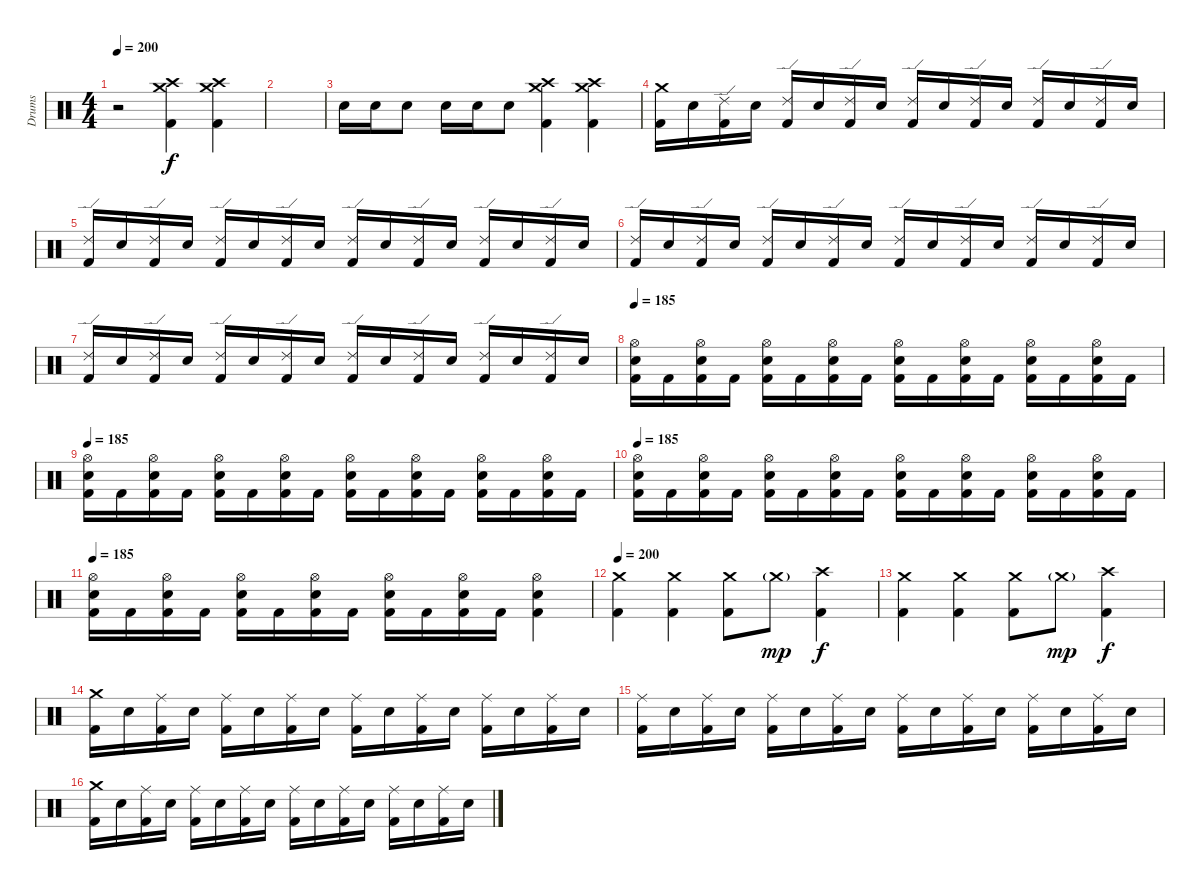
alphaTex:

\track ("Drums" "Drums") {instrument percussion}
\staff {score}
\articulation defaults
\ts (4 4)
\tempo 200
\clef neutral
\ks c
r.2{dy f} ("Crash high (hit)" "Crash medium (hit)" "Kick (hit) 2").4 ("Crash high (hit)" "Crash medium (hit)" "Kick (hit) 2").4 |
|
"Electric Snare (hit)".16 "Electric Snare (hit)".16 "Electric Snare (hit)".8 "Electric Snare (hit)".16 "Electric Snare (hit)".16 "Electric Snare (hit)".8 ("Crash high (hit)" "Crash medium (hit)" "Kick (hit) 2").4 ("Crash high (hit)" "Crash medium (hit)" "Kick (hit) 2").4 |
("Crash medium (hit)" "Kick (hit) 2").16 "Electric Snare (hit)".16 ("Ride (edge) 2" "Kick (hit) 2").16 "Electric Snare (hit)".16 ("Ride (edge) 2" "Kick (hit) 2").16 "Electric Snare (hit)".16 ("Ride (edge) 2" "Kick (hit) 2").16 "Electric Snare (hit)".16 ("Ride (edge) 2" "Kick (hit) 2").16 "Electric Snare (hit)".16 ("Ride (edge) 2" "Kick (hit) 2").16 "Electric Snare (hit)".16 ("Ride (edge) 2" "Kick (hit) 2").16 "Electric Snare (hit)".16 ("Ride (edge) 2" "Kick (hit) 2").16 "Electric Snare (hit)".16 |
("Ride (edge) 2" "Kick (hit) 2").16 "Electric Snare (hit)".16 ("Ride (edge) 2" "Kick (hit) 2").16 "Electric Snare (hit)".16 ("Ride (edge) 2" "Kick (hit) 2").16 "Electric Snare (hit)".16 ("Ride (edge) 2" "Kick (hit) 2").16 "Electric Snare (hit)".16 ("Ride (edge) 2" "Kick (hit) 2").16 "Electric Snare (hit)".16 ("Ride (edge) 2" "Kick (hit) 2").16 "Electric Snare (hit)".16 ("Ride (edge) 2" "Kick (hit) 2").16 "Electric Snare (hit)".16 ("Ride (edge) 2" "Kick (hit) 2").16 "Electric Snare (hit)".16 |
("Ride (edge) 2" "Kick (hit) 2").16 "Electric Snare (hit)".16 ("Ride (edge) 2" "Kick (hit) 2").16 "Electric Snare (hit)".16 ("Ride (edge) 2" "Kick (hit) 2").16 "Electric Snare (hit)".16 ("Ride (edge) 2" "Kick (hit) 2").16 "Electric Snare (hit)".16 ("Ride (edge) 2" "Kick (hit) 2").16 "Electric Snare (hit)".16 ("Ride (edge) 2" "Kick (hit) 2").16 "Electric Snare (hit)".16 ("Ride (edge) 2" "Kick (hit) 2").16 "Electric Snare (hit)".16 ("Ride (edge) 2" "Kick (hit) 2").16 "Electric Snare (hit)".16 |
("Ride (edge) 2" "Kick (hit) 2").16 "Electric Snare (hit)".16 ("Ride (edge) 2" "Kick (hit) 2").16 "Electric Snare (hit)".16 ("Ride (edge) 2" "Kick (hit) 2").16 "Electric Snare (hit)".16 ("Ride (edge) 2" "Kick (hit) 2").16 "Electric Snare (hit)".16 ("Ride (edge) 2" "Kick (hit) 2").16 "Electric Snare (hit)".16 ("Ride (edge) 2" "Kick (hit) 2").16 "Electric Snare (hit)".16 ("Ride (edge) 2" "Kick (hit) 2").16 "Electric Snare (hit)".16 ("Ride (edge) 2" "Kick (hit) 2").16 "Electric Snare (hit)".16 |
\section ("" "")
\tempo 185
("Hi-Hat (open)" "Electric Snare (hit)" "Kick (hit) 2").16 "Kick (hit) 2".16 ("Hi-Hat (open)" "Electric Snare (hit)" "Kick (hit) 2").16 "Kick (hit) 2".16 ("Hi-Hat (open)" "Electric Snare (hit)" "Kick (hit) 2").16 "Kick (hit) 2".16 ("Hi-Hat (open)" "Electric Snare (hit)" "Kick (hit) 2").16 "Kick (hit) 2".16 ("Hi-Hat (open)" "Electric Snare (hit)" "Kick (hit) 2").16 "Kick (hit) 2".16 ("Hi-Hat (open)" "Electric Snare (hit)" "Kick (hit) 2").16 "Kick (hit) 2".16 ("Hi-Hat (open)" "Electric Snare (hit)" "Kick (hit) 2").16 "Kick (hit) 2".16 ("Hi-Hat (open)" "Electric Snare (hit)" "Kick (hit) 2").16 "Kick (hit) 2".16 |
\tempo 185
("Hi-Hat (open)" "Electric Snare (hit)" "Kick (hit) 2").16 "Kick (hit) 2".16 ("Hi-Hat (open)" "Electric Snare (hit)" "Kick (hit) 2").16 "Kick (hit) 2".16 ("Hi-Hat (open)" "Electric Snare (hit)" "Kick (hit) 2").16 "Kick (hit) 2".16 ("Hi-Hat (open)" "Electric Snare (hit)" "Kick (hit) 2").16 "Kick (hit) 2".16 ("Hi-Hat (open)" "Electric Snare (hit)" "Kick (hit) 2").16 "Kick (hit) 2".16 ("Hi-Hat (open)" "Electric Snare (hit)" "Kick (hit) 2").16 "Kick (hit) 2".16 ("Hi-Hat (open)" "Electric Snare (hit)" "Kick (hit) 2").16 "Kick (hit) 2".16 ("Hi-Hat (open)" "Electric Snare (hit)" "Kick (hit) 2").16 "Kick (hit) 2".16 |
\tempo 185
("Hi-Hat (open)" "Electric Snare (hit)" "Kick (hit) 2").16 "Kick (hit) 2".16 ("Hi-Hat (open)" "Electric Snare (hit)" "Kick (hit) 2").16 "Kick (hit) 2".16 ("Hi-Hat (open)" "Electric Snare (hit)" "Kick (hit) 2").16 "Kick (hit) 2".16 ("Hi-Hat (open)" "Electric Snare (hit)" "Kick (hit) 2").16 "Kick (hit) 2".16 ("Hi-Hat (open)" "Electric Snare (hit)" "Kick (hit) 2").16 "Kick (hit) 2".16 ("Hi-Hat (open)" "Electric Snare (hit)" "Kick (hit) 2").16 "Kick (hit) 2".16 ("Hi-Hat (open)" "Electric Snare (hit)" "Kick (hit) 2").16 "Kick (hit) 2".16 ("Hi-Hat (open)" "Electric Snare (hit)" "Kick (hit) 2").16 "Kick (hit) 2".16 |
\tempo 185
("Hi-Hat (open)" "Electric Snare (hit)" "Kick (hit) 2").16 "Kick (hit) 2".16 ("Hi-Hat (open)" "Electric Snare (hit)" "Kick (hit) 2").16 "Kick (hit) 2".16 ("Hi-Hat (open)" "Electric Snare (hit)" "Kick (hit) 2").16 "Kick (hit) 2".16 ("Hi-Hat (open)" "Electric Snare (hit)" "Kick (hit) 2").16 "Kick (hit) 2".16 ("Hi-Hat (open)" "Electric Snare (hit)" "Kick (hit) 2").16 "Kick (hit) 2".16 ("Hi-Hat (open)" "Electric Snare (hit)" "Kick (hit) 2").16 "Kick (hit) 2".16 ("Hi-Hat (open)" "Electric Snare (hit)" "Kick (hit) 2").4 |
\section ("" "")
\tempo 200
("Crash medium (hit)" "Kick (hit) 2").4 ("Crash medium (hit)" "Kick (hit) 2").4 ("Crash medium (hit)" "Kick (hit) 2").8 "Crash medium (hit)"{g pm}.8{dy mp} ("Crash high (hit)" "Kick (hit) 2").4{dy f} |
("Crash medium (hit)" "Kick (hit) 2").4 ("Crash medium (hit)" "Kick (hit) 2").4 ("Crash medium (hit)" "Kick (hit) 2").8 "Crash medium (hit)"{g pm}.8{dy mp} ("Crash high (hit)" "Kick (hit) 2").4{dy f} |
("Crash medium (hit)" "Kick (hit) 2").16 "Electric Snare (hit)".16 ("Ride (middle)" "Kick (hit) 2").16 "Electric Snare (hit)".16 ("Ride (middle)" "Kick (hit) 2").16 "Electric Snare (hit)".16 ("Ride (middle)" "Kick (hit) 2").16 "Electric Snare (hit)".16 ("Ride (middle)" "Kick (hit) 2").16 "Electric Snare (hit)".16 ("Ride (middle)" "Kick (hit) 2").16 "Electric Snare (hit)".16 ("Ride (middle)" "Kick (hit) 2").16 "Electric Snare (hit)".16 ("Ride (middle)" "Kick (hit) 2").16 "Electric Snare (hit)".16 |
("Ride (middle)" "Kick (hit) 2").16 "Electric Snare (hit)".16 ("Ride (middle)" "Kick (hit) 2").16 "Electric Snare (hit)".16 ("Ride (middle)" "Kick (hit) 2").16 "Electric Snare (hit)".16 ("Ride (middle)" "Kick (hit) 2").16 "Electric Snare (hit)".16 ("Ride (middle)" "Kick (hit) 2").16 "Electric Snare (hit)".16 ("Ride (middle)" "Kick (hit) 2").16 "Electric Snare (hit)".16 ("Ride (middle)" "Kick (hit) 2").16 "Electric Snare (hit)".16 ("Ride (middle)" "Kick (hit) 2").16 "Electric Snare (hit)".16 |
("Crash medium (hit)" "Kick (hit) 2").16 "Electric Snare (hit)".16 ("Ride (middle)" "Kick (hit) 2").16 "Electric Snare (hit)".16 ("Ride (middle)" "Kick (hit) 2").16 "Electric Snare (hit)".16 ("Ride (middle)" "Kick (hit) 2").16 "Electric Snare (hit)".16 ("Ride (middle)" "Kick (hit) 2").16 "Electric Snare (hit)".16 ("Ride (middle)" "Kick (hit) 2").16 "Electric Snare (hit)".16 ("Ride (middle)" "Kick (hit) 2").16 "Electric Snare (hit)".16 ("Ride (middle)" "Kick (hit) 2").16 "Electric Snare (hit)".16
